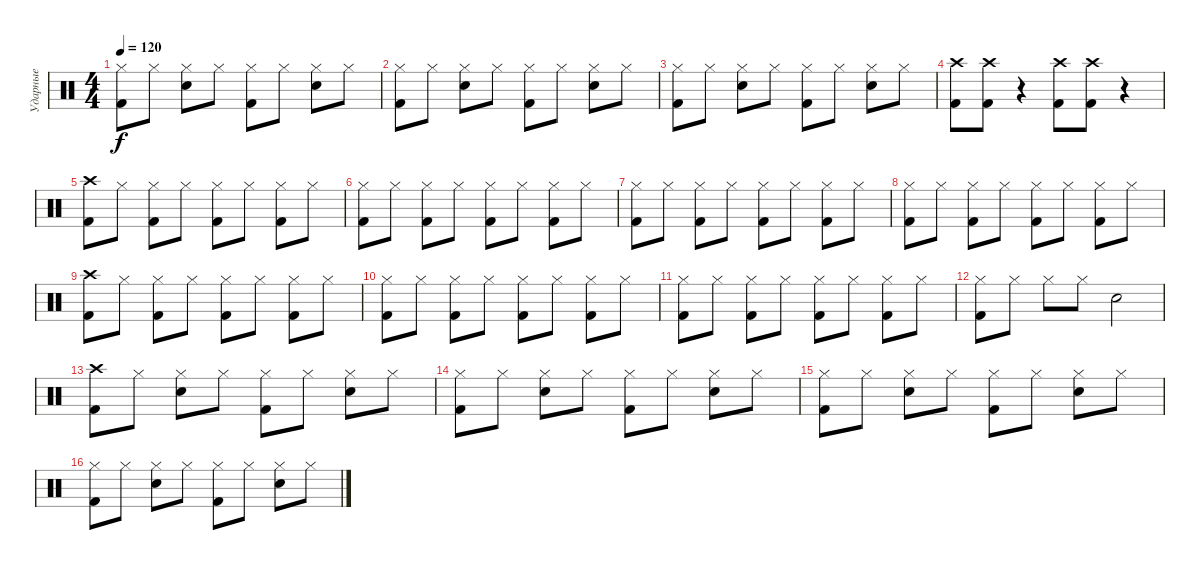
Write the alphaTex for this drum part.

\track ("Ударные" "Ударные") {instrument percussion}
\staff {score}
\articulation defaults
\ts (4 4)
\tempo 120
\clef neutral
\ks c
("Hi-Hat (closed)" "Kick (hit) 2").8{dy f} "Hi-Hat (closed)".8 ("Hi-Hat (closed)" "Electric Snare (hit)").8 "Hi-Hat (closed)".8 ("Hi-Hat (closed)" "Kick (hit) 2").8 "Hi-Hat (closed)".8 ("Hi-Hat (closed)" "Electric Snare (hit)").8 "Hi-Hat (closed)".8 |
("Hi-Hat (closed)" "Kick (hit) 2").8 "Hi-Hat (closed)".8 ("Hi-Hat (closed)" "Electric Snare (hit)").8 "Hi-Hat (closed)".8 ("Hi-Hat (closed)" "Kick (hit) 2").8 "Hi-Hat (closed)".8 ("Hi-Hat (closed)" "Electric Snare (hit)").8 "Hi-Hat (closed)".8 |
("Hi-Hat (closed)" "Kick (hit) 2").8 "Hi-Hat (closed)".8 ("Hi-Hat (closed)" "Electric Snare (hit)").8 "Hi-Hat (closed)".8 ("Hi-Hat (closed)" "Kick (hit) 2").8 "Hi-Hat (closed)".8 ("Hi-Hat (closed)" "Electric Snare (hit)").8 "Hi-Hat (closed)".8 |
("Crash high (hit)" "Kick (hit) 2").8 ("Crash high (hit)" "Kick (hit) 2").8 r.4 ("Crash high (hit)" "Kick (hit) 2").8 ("Crash high (hit)" "Kick (hit) 2").8 r.4 |
("Crash high (hit)" "Kick (hit) 2").8 "Hi-Hat (closed)".8 ("Hi-Hat (closed)" "Kick (hit) 2").8 "Hi-Hat (closed)".8 ("Hi-Hat (closed)" "Kick (hit) 2").8 "Hi-Hat (closed)".8 ("Hi-Hat (closed)" "Kick (hit) 2").8 "Hi-Hat (closed)".8 |
("Hi-Hat (closed)" "Kick (hit) 2").8 "Hi-Hat (closed)".8 ("Hi-Hat (closed)" "Kick (hit) 2").8 "Hi-Hat (closed)".8 ("Hi-Hat (closed)" "Kick (hit) 2").8 "Hi-Hat (closed)".8 ("Hi-Hat (closed)" "Kick (hit) 2").8 "Hi-Hat (closed)".8 |
("Hi-Hat (closed)" "Kick (hit) 2").8 "Hi-Hat (closed)".8 ("Hi-Hat (closed)" "Kick (hit) 2").8 "Hi-Hat (closed)".8 ("Hi-Hat (closed)" "Kick (hit) 2").8 "Hi-Hat (closed)".8 ("Hi-Hat (closed)" "Kick (hit) 2").8 "Hi-Hat (closed)".8 |
("Hi-Hat (closed)" "Kick (hit) 2").8 "Hi-Hat (closed)".8 ("Hi-Hat (closed)" "Kick (hit) 2").8 "Hi-Hat (closed)".8 ("Hi-Hat (closed)" "Kick (hit) 2").8 "Hi-Hat (closed)".8 ("Hi-Hat (closed)" "Kick (hit) 2").8 "Hi-Hat (closed)".8 |
("Crash high (hit)" "Kick (hit) 2").8 "Hi-Hat (closed)".8 ("Hi-Hat (closed)" "Kick (hit) 2").8 "Hi-Hat (closed)".8 ("Hi-Hat (closed)" "Kick (hit) 2").8 "Hi-Hat (closed)".8 ("Hi-Hat (closed)" "Kick (hit) 2").8 "Hi-Hat (closed)".8 |
("Hi-Hat (closed)" "Kick (hit) 2").8 "Hi-Hat (closed)".8 ("Hi-Hat (closed)" "Kick (hit) 2").8 "Hi-Hat (closed)".8 ("Hi-Hat (closed)" "Kick (hit) 2").8 "Hi-Hat (closed)".8 ("Hi-Hat (closed)" "Kick (hit) 2").8 "Hi-Hat (closed)".8 |
("Hi-Hat (closed)" "Kick (hit) 2").8 "Hi-Hat (closed)".8 ("Hi-Hat (closed)" "Kick (hit) 2").8 "Hi-Hat (closed)".8 ("Hi-Hat (closed)" "Kick (hit) 2").8 "Hi-Hat (closed)".8 ("Hi-Hat (closed)" "Kick (hit) 2").8 "Hi-Hat (closed)".8 |
("Hi-Hat (closed)" "Kick (hit) 2").8 "Hi-Hat (closed)".8 "Hi-Hat (closed)".8 "Hi-Hat (closed)".8 "Electric Snare (hit)".2 |
("Crash high (hit)" "Kick (hit) 2").8 "Hi-Hat (closed)".8 ("Hi-Hat (closed)" "Electric Snare (hit)").8 "Hi-Hat (closed)".8 ("Hi-Hat (closed)" "Kick (hit) 2").8 "Hi-Hat (closed)".8 ("Hi-Hat (closed)" "Electric Snare (hit)").8 "Hi-Hat (closed)".8 |
("Hi-Hat (closed)" "Kick (hit) 2").8 "Hi-Hat (closed)".8 ("Hi-Hat (closed)" "Electric Snare (hit)").8 "Hi-Hat (closed)".8 ("Hi-Hat (closed)" "Kick (hit) 2").8 "Hi-Hat (closed)".8 ("Hi-Hat (closed)" "Electric Snare (hit)").8 "Hi-Hat (closed)".8 |
("Hi-Hat (closed)" "Kick (hit) 2").8 "Hi-Hat (closed)".8 ("Hi-Hat (closed)" "Electric Snare (hit)").8 "Hi-Hat (closed)".8 ("Hi-Hat (closed)" "Kick (hit) 2").8 "Hi-Hat (closed)".8 ("Hi-Hat (closed)" "Electric Snare (hit)").8 "Hi-Hat (closed)".8 |
("Hi-Hat (closed)" "Kick (hit) 2").8 "Hi-Hat (closed)".8 ("Hi-Hat (closed)" "Electric Snare (hit)").8 "Hi-Hat (closed)".8 ("Hi-Hat (closed)" "Kick (hit) 2").8 "Hi-Hat (closed)".8 ("Hi-Hat (closed)" "Electric Snare (hit)").8 "Hi-Hat (closed)".8
